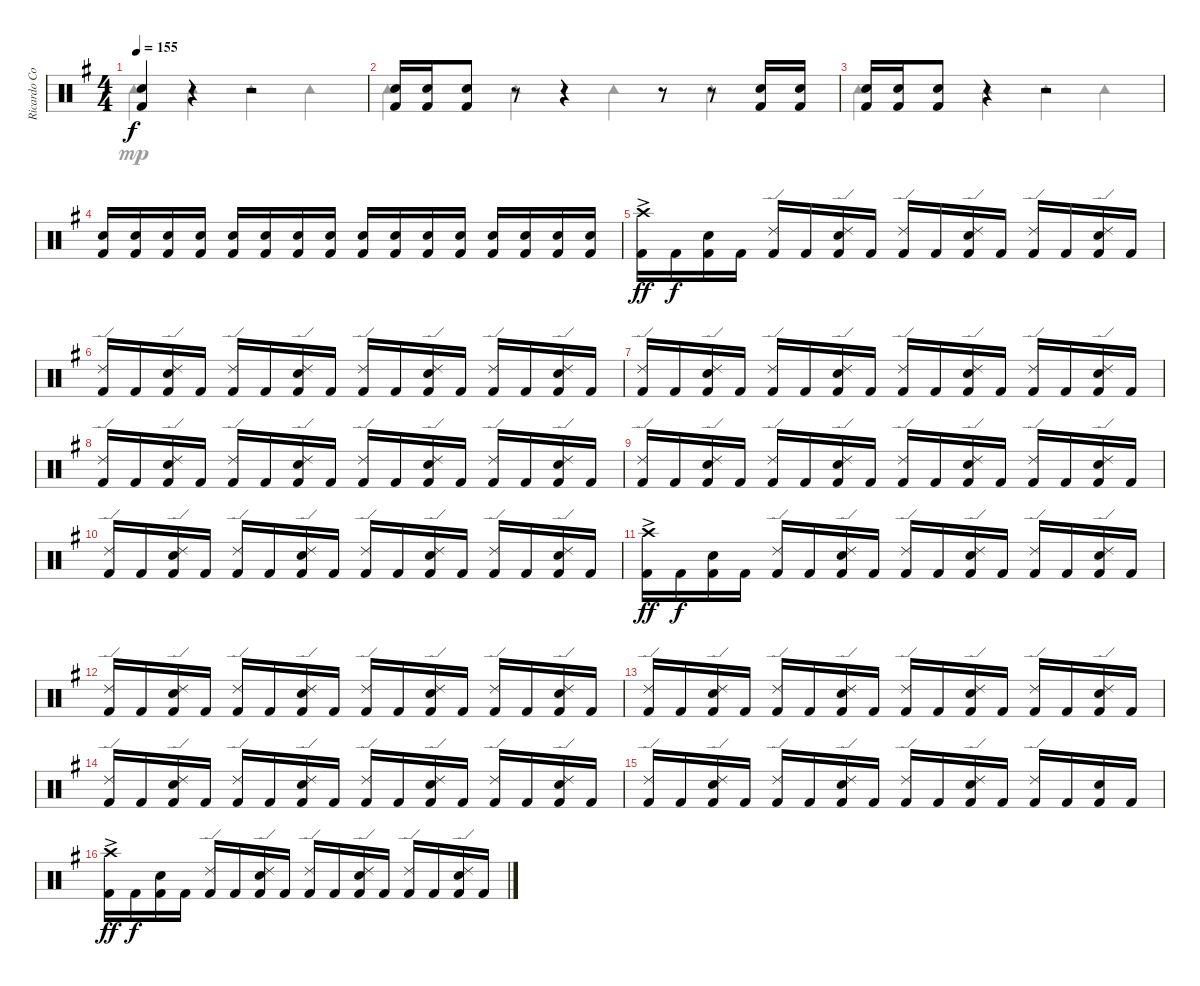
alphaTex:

\track ("Ricardo Confessori" "Ricardo Co") {instrument percussion}
\staff {score}
\articulation defaults
\voice
\ts (4 4)
\tempo 155
\clef neutral
\ks g
("Electric Snare (hit)" "Kick (hit) 2").4{dy f} r.4 r.2 |
("Kick (hit) 2" "Electric Snare (hit)").16 ("Kick (hit) 2" "Electric Snare (hit)").16 ("Kick (hit) 2" "Electric Snare (hit)").8 r.8 r.4 r.8 r.8 ("Kick (hit) 2" "Electric Snare (hit)").16 ("Kick (hit) 2" "Electric Snare (hit)").16 |
("Kick (hit) 2" "Electric Snare (hit)").16 ("Kick (hit) 2" "Electric Snare (hit)").16 ("Kick (hit) 2" "Electric Snare (hit)").8 r.4 r.2 |
("Electric Snare (hit)" "Kick (hit) 2").16 ("Kick (hit) 2" "Electric Snare (hit)").16 ("Kick (hit) 2" "Electric Snare (hit)").16 ("Kick (hit) 2" "Electric Snare (hit)").16 ("Kick (hit) 2" "Electric Snare (hit)").16 ("Kick (hit) 2" "Electric Snare (hit)").16 ("Kick (hit) 2" "Electric Snare (hit)").16 ("Kick (hit) 2" "Electric Snare (hit)").16 ("Kick (hit) 2" "Electric Snare (hit)").16 ("Kick (hit) 2" "Electric Snare (hit)").16 ("Kick (hit) 2" "Electric Snare (hit)").16 ("Kick (hit) 2" "Electric Snare (hit)").16 ("Kick (hit) 2" "Electric Snare (hit)").16 ("Kick (hit) 2" "Electric Snare (hit)").16 ("Kick (hit) 2" "Electric Snare (hit)").16 ("Kick (hit) 2" "Electric Snare (hit)").16 |
("Crash high (hit)"{ac} "Kick (hit) 2"{ac}).16{dy ff} "Kick (hit) 2".16{dy f} ("Kick (hit) 2" "Electric Snare (hit)").16 "Kick (hit) 2".16 ("Kick (hit) 2" "Ride (edge) 2").16 "Kick (hit) 2".16 ("Kick (hit) 2" "Ride (edge) 2" "Electric Snare (hit)").16 "Kick (hit) 2".16 ("Kick (hit) 2" "Ride (edge) 2").16 "Kick (hit) 2".16 ("Kick (hit) 2" "Ride (edge) 2" "Electric Snare (hit)").16 "Kick (hit) 2".16 ("Kick (hit) 2" "Ride (edge) 2").16 "Kick (hit) 2".16 ("Kick (hit) 2" "Ride (edge) 2" "Electric Snare (hit)").16 "Kick (hit) 2".16 |
("Ride (edge) 2" "Kick (hit) 2").16 "Kick (hit) 2".16 ("Kick (hit) 2" "Electric Snare (hit)" "Ride (edge) 2").16 "Kick (hit) 2".16 ("Kick (hit) 2" "Ride (edge) 2").16 "Kick (hit) 2".16 ("Kick (hit) 2" "Ride (edge) 2" "Electric Snare (hit)").16 "Kick (hit) 2".16 ("Kick (hit) 2" "Ride (edge) 2").16 "Kick (hit) 2".16 ("Kick (hit) 2" "Ride (edge) 2" "Electric Snare (hit)").16 "Kick (hit) 2".16 ("Kick (hit) 2" "Ride (edge) 2").16 "Kick (hit) 2".16 ("Kick (hit) 2" "Ride (edge) 2" "Electric Snare (hit)").16 "Kick (hit) 2".16 |
("Ride (edge) 2" "Kick (hit) 2").16 "Kick (hit) 2".16 ("Kick (hit) 2" "Electric Snare (hit)" "Ride (edge) 2").16 "Kick (hit) 2".16 ("Kick (hit) 2" "Ride (edge) 2").16 "Kick (hit) 2".16 ("Kick (hit) 2" "Ride (edge) 2" "Electric Snare (hit)").16 "Kick (hit) 2".16 ("Kick (hit) 2" "Ride (edge) 2").16 "Kick (hit) 2".16 ("Kick (hit) 2" "Ride (edge) 2" "Electric Snare (hit)").16 "Kick (hit) 2".16 ("Kick (hit) 2" "Ride (edge) 2").16 "Kick (hit) 2".16 ("Kick (hit) 2" "Ride (edge) 2" "Electric Snare (hit)").16 "Kick (hit) 2".16 |
("Ride (edge) 2" "Kick (hit) 2").16 "Kick (hit) 2".16 ("Kick (hit) 2" "Electric Snare (hit)" "Ride (edge) 2").16 "Kick (hit) 2".16 ("Kick (hit) 2" "Ride (edge) 2").16 "Kick (hit) 2".16 ("Kick (hit) 2" "Ride (edge) 2" "Electric Snare (hit)").16 "Kick (hit) 2".16 ("Kick (hit) 2" "Ride (edge) 2").16 "Kick (hit) 2".16 ("Kick (hit) 2" "Ride (edge) 2" "Electric Snare (hit)").16 "Kick (hit) 2".16 ("Kick (hit) 2" "Ride (edge) 2").16 "Kick (hit) 2".16 ("Kick (hit) 2" "Ride (edge) 2" "Electric Snare (hit)").16 "Kick (hit) 2".16 |
("Ride (edge) 2" "Kick (hit) 2").16 "Kick (hit) 2".16 ("Kick (hit) 2" "Electric Snare (hit)" "Ride (edge) 2").16 "Kick (hit) 2".16 ("Kick (hit) 2" "Ride (edge) 2").16 "Kick (hit) 2".16 ("Kick (hit) 2" "Ride (edge) 2" "Electric Snare (hit)").16 "Kick (hit) 2".16 ("Kick (hit) 2" "Ride (edge) 2").16 "Kick (hit) 2".16 ("Kick (hit) 2" "Ride (edge) 2" "Electric Snare (hit)").16 "Kick (hit) 2".16 ("Kick (hit) 2" "Ride (edge) 2").16 "Kick (hit) 2".16 ("Kick (hit) 2" "Ride (edge) 2" "Electric Snare (hit)").16 "Kick (hit) 2".16 |
("Ride (edge) 2" "Kick (hit) 2").16 "Kick (hit) 2".16 ("Kick (hit) 2" "Electric Snare (hit)" "Ride (edge) 2").16 "Kick (hit) 2".16 ("Kick (hit) 2" "Ride (edge) 2").16 "Kick (hit) 2".16 ("Kick (hit) 2" "Ride (edge) 2" "Electric Snare (hit)").16 "Kick (hit) 2".16 ("Kick (hit) 2" "Ride (edge) 2").16 "Kick (hit) 2".16 ("Kick (hit) 2" "Ride (edge) 2" "Electric Snare (hit)").16 "Kick (hit) 2".16 ("Kick (hit) 2" "Ride (edge) 2").16 "Kick (hit) 2".16 ("Kick (hit) 2" "Ride (edge) 2" "Electric Snare (hit)").16 "Kick (hit) 2".16 |
("Crash high (hit)"{ac} "Kick (hit) 2"{ac}).16{dy ff} "Kick (hit) 2".16{dy f} ("Kick (hit) 2" "Electric Snare (hit)").16 "Kick (hit) 2".16 ("Kick (hit) 2" "Ride (edge) 2").16 "Kick (hit) 2".16 ("Kick (hit) 2" "Ride (edge) 2" "Electric Snare (hit)").16 "Kick (hit) 2".16 ("Kick (hit) 2" "Ride (edge) 2").16 "Kick (hit) 2".16 ("Kick (hit) 2" "Ride (edge) 2" "Electric Snare (hit)").16 "Kick (hit) 2".16 ("Kick (hit) 2" "Ride (edge) 2").16 "Kick (hit) 2".16 ("Kick (hit) 2" "Ride (edge) 2" "Electric Snare (hit)").16 "Kick (hit) 2".16 |
("Ride (edge) 2" "Kick (hit) 2").16 "Kick (hit) 2".16 ("Kick (hit) 2" "Electric Snare (hit)" "Ride (edge) 2").16 "Kick (hit) 2".16 ("Kick (hit) 2" "Ride (edge) 2").16 "Kick (hit) 2".16 ("Kick (hit) 2" "Ride (edge) 2" "Electric Snare (hit)").16 "Kick (hit) 2".16 ("Kick (hit) 2" "Ride (edge) 2").16 "Kick (hit) 2".16 ("Kick (hit) 2" "Ride (edge) 2" "Electric Snare (hit)").16 "Kick (hit) 2".16 ("Kick (hit) 2" "Ride (edge) 2").16 "Kick (hit) 2".16 ("Kick (hit) 2" "Ride (edge) 2" "Electric Snare (hit)").16 "Kick (hit) 2".16 |
("Ride (edge) 2" "Kick (hit) 2").16 "Kick (hit) 2".16 ("Kick (hit) 2" "Electric Snare (hit)" "Ride (edge) 2").16 "Kick (hit) 2".16 ("Kick (hit) 2" "Ride (edge) 2").16 "Kick (hit) 2".16 ("Kick (hit) 2" "Ride (edge) 2" "Electric Snare (hit)").16 "Kick (hit) 2".16 ("Kick (hit) 2" "Ride (edge) 2").16 "Kick (hit) 2".16 ("Kick (hit) 2" "Ride (edge) 2" "Electric Snare (hit)").16 "Kick (hit) 2".16 ("Kick (hit) 2" "Ride (edge) 2").16 "Kick (hit) 2".16 ("Kick (hit) 2" "Ride (edge) 2" "Electric Snare (hit)").16 "Kick (hit) 2".16 |
("Ride (edge) 2" "Kick (hit) 2").16 "Kick (hit) 2".16 ("Kick (hit) 2" "Electric Snare (hit)" "Ride (edge) 2").16 "Kick (hit) 2".16 ("Kick (hit) 2" "Ride (edge) 2").16 "Kick (hit) 2".16 ("Kick (hit) 2" "Ride (edge) 2" "Electric Snare (hit)").16 "Kick (hit) 2".16 ("Kick (hit) 2" "Ride (edge) 2").16 "Kick (hit) 2".16 ("Kick (hit) 2" "Ride (edge) 2" "Electric Snare (hit)").16 "Kick (hit) 2".16 ("Kick (hit) 2" "Ride (edge) 2").16 "Kick (hit) 2".16 ("Kick (hit) 2" "Ride (edge) 2" "Electric Snare (hit)").16 "Kick (hit) 2".16 |
("Ride (edge) 2" "Kick (hit) 2").16 "Kick (hit) 2".16 ("Kick (hit) 2" "Electric Snare (hit)" "Ride (edge) 2").16 "Kick (hit) 2".16 ("Kick (hit) 2" "Ride (edge) 2").16 "Kick (hit) 2".16 ("Kick (hit) 2" "Ride (edge) 2" "Electric Snare (hit)").16 "Kick (hit) 2".16 ("Kick (hit) 2" "Ride (edge) 2").16 "Kick (hit) 2".16 ("Kick (hit) 2" "Ride (edge) 2" "Electric Snare (hit)").16 "Kick (hit) 2".16 ("Kick (hit) 2" "Ride (edge) 2").16 "Kick (hit) 2".16 ("Kick (hit) 2" "Electric Snare (hit)").16 "Kick (hit) 2".16 |
("Crash high (hit)"{ac} "Kick (hit) 2"{ac}).16{dy ff} "Kick (hit) 2".16{dy f} ("Kick (hit) 2" "Electric Snare (hit)").16 "Kick (hit) 2".16 ("Kick (hit) 2" "Ride (edge) 2").16 "Kick (hit) 2".16 ("Kick (hit) 2" "Ride (edge) 2" "Electric Snare (hit)").16 "Kick (hit) 2".16 ("Kick (hit) 2" "Ride (edge) 2").16 "Kick (hit) 2".16 ("Kick (hit) 2" "Ride (edge) 2" "Electric Snare (hit)").16 "Kick (hit) 2".16 ("Kick (hit) 2" "Ride (edge) 2").16 "Kick (hit) 2".16 ("Kick (hit) 2" "Ride (edge) 2" "Electric Snare (hit)").16 "Kick (hit) 2".16
\voice
\clef neutral
\ottava regular
\simile none
\ks g "Tambourine (hit)".4{dy mp} "Tambourine (hit)".4 "Tambourine (hit)".4 "Tambourine (hit)".4
|
"Tambourine (hit)".4 "Tambourine (hit)".4 "Tambourine (hit)".4 "Tambourine (hit)".4 |
"Tambourine (hit)".4 "Tambourine (hit)".4 "Tambourine (hit)".4 "Tambourine (hit)".4 |
|
|
|
|
|
|
|
|
|
|
|
|
